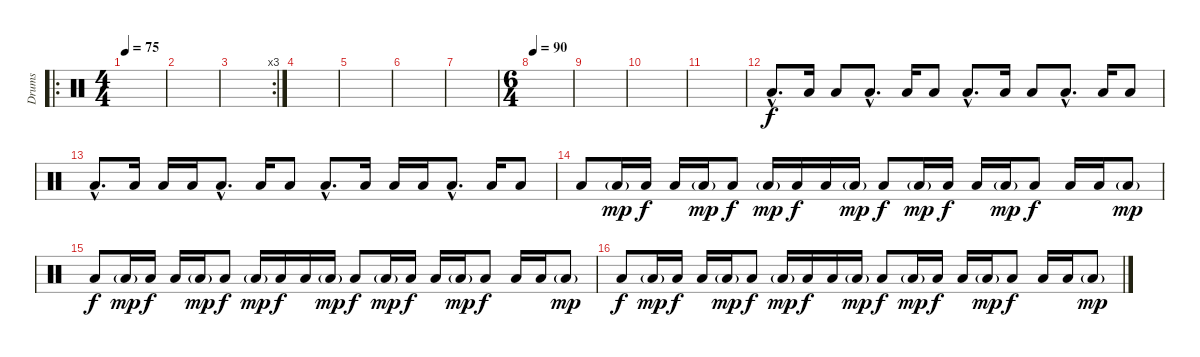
\track ("Drums" "Drums") {instrument percussion}
\staff {score}
\articulation defaults
\ro
\ts (4 4)
\tempo 75
\clef neutral
\ks c
|
|
\rc 3
|
|
|
|
|
\ts (6 4)
\tempo 90
|
|
|
|
"Low Floor Tom (hit)"{hac}.8{d volume 15} "Low Floor Tom (hit)".16 "Low Tom (hit)".8 "Low Floor Tom (hit)"{hac}.8{d} "Low Floor Tom (hit)".16 "Low Tom (hit)".8 "Low Floor Tom (hit)"{hac}.8{d} "Low Floor Tom (hit)".16 "Low Tom (hit)".8 "Low Floor Tom (hit)"{hac}.8{d} "Low Floor Tom (hit)".16 "Low Tom (hit)".8 |
"Low Floor Tom (hit)"{hac}.8{d} "Low Floor Tom (hit)".16 "Low Tom (hit)".16 "Low Floor Tom (hit)".16 "Low Floor Tom (hit)"{hac}.8{d} "Low Floor Tom (hit)".16 "Low Tom (hit)".8 "Low Floor Tom (hit)"{hac}.8{d} "Low Floor Tom (hit)".16 "Low Tom (hit)".16 "Low Floor Tom (hit)".16 "Low Floor Tom (hit)"{hac}.8{d} "Low Floor Tom (hit)".16 "Low Tom (hit)".8 |
"Low Floor Tom (hit)".8 "Low Tom (hit)"{g}.16{dy mp} "Low Floor Tom (hit)".16{dy f} "Low Tom (hit)".16 "Low Floor Tom (hit)"{g}.16{dy mp} "Low Floor Tom (hit)".8{dy f} "Low Tom (hit)"{g}.16{dy mp} "Low Floor Tom (hit)".16{dy f} "Low Tom (hit)".16 "Low Floor Tom (hit)"{g}.16{dy mp} "Low Floor Tom (hit)".8{dy f} "Low Tom (hit)"{g}.16{dy mp} "Low Floor Tom (hit)".16{dy f} "Low Tom (hit)".16 "Low Floor Tom (hit)"{g}.16{dy mp} "Low Floor Tom (hit)".8{dy f} "Low Tom (hit)".16 "Low Floor Tom (hit)".16 "Low Tom (hit)"{g}.8{dy mp} |
"Low Floor Tom (hit)".8{dy f} "Low Tom (hit)"{g}.16{dy mp} "Low Floor Tom (hit)".16{dy f} "Low Tom (hit)".16 "Low Floor Tom (hit)"{g}.16{dy mp} "Low Floor Tom (hit)".8{dy f} "Low Tom (hit)"{g}.16{dy mp} "Low Floor Tom (hit)".16{dy f} "Low Tom (hit)".16 "Low Floor Tom (hit)"{g}.16{dy mp} "Low Floor Tom (hit)".8{dy f} "Low Tom (hit)"{g}.16{dy mp} "Low Floor Tom (hit)".16{dy f} "Low Tom (hit)".16 "Low Floor Tom (hit)"{g}.16{dy mp} "Low Floor Tom (hit)".8{dy f} "Low Tom (hit)".16 "Low Floor Tom (hit)".16 "Low Tom (hit)"{g}.8{dy mp} |
"Low Floor Tom (hit)".8{dy f} "Low Tom (hit)"{g}.16{dy mp} "Low Floor Tom (hit)".16{dy f} "Low Tom (hit)".16 "Low Floor Tom (hit)"{g}.16{dy mp} "Low Floor Tom (hit)".8{dy f} "Low Tom (hit)"{g}.16{dy mp} "Low Floor Tom (hit)".16{dy f} "Low Tom (hit)".16 "Low Floor Tom (hit)"{g}.16{dy mp} "Low Floor Tom (hit)".8{dy f} "Low Tom (hit)"{g}.16{dy mp} "Low Floor Tom (hit)".16{dy f} "Low Tom (hit)".16 "Low Floor Tom (hit)"{g}.16{dy mp} "Low Floor Tom (hit)".8{dy f} "Low Tom (hit)".16 "Low Floor Tom (hit)".16 "Low Tom (hit)"{g}.8{dy mp}
